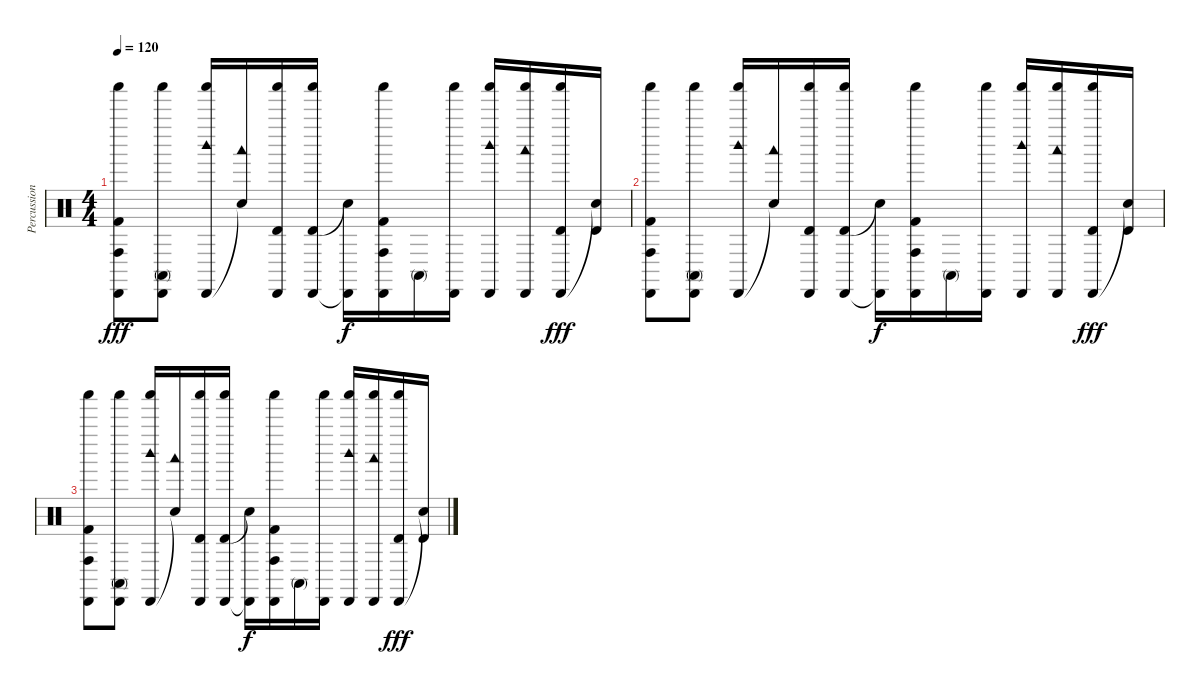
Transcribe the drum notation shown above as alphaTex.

\track ("Percussion" "Percussion") {instrument percussion}
\staff {score}
\articulation defaults
\ts (4 4)
\tempo 120
\clef neutral
\ks c
("Cabasa (hit)" "Conga high (hit)" "Kick (hit) 2" "Shaker (hit)").8{dy fff} ("Cabasa (hit)" "Conga high (mute)" "Shaker (hit)").8 ("Cabasa (hit)" "Woodblock high (hit)" "Shaker (hit)").16 ("Snare (hit)"{t} "Woodblock low (hit)").16 ("Cabasa (hit)" "Timbale high (hit)" "Shaker (hit)").16 ("Cabasa (hit)" "Timbale high (hit)" "Shaker (hit)").16 ("Cabasa (hit)"{t} "Snare (hit)"{t}).16{dy f} ("Cabasa (hit)" "Conga high (hit)" "Kick (hit) 2" "Shaker (hit)").16 "Conga high (mute)".16 ("Cabasa (hit)" "Shaker (hit)").16 ("Cabasa (hit)" "Woodblock high (hit)" "Shaker (hit)").16 ("Cabasa (hit)" "Woodblock low (hit)" "Shaker (hit)").16 ("Cabasa (hit)" "Timbale high (hit)" "Shaker (hit)").16{dy fff} ("Snare (hit)"{t} "Timbale high (hit)").16 |
("Cabasa (hit)" "Conga high (hit)" "Kick (hit) 2" "Shaker (hit)").8{volume 0} ("Cabasa (hit)" "Conga high (mute)" "Shaker (hit)").8 ("Cabasa (hit)" "Woodblock high (hit)" "Shaker (hit)").16 ("Snare (hit)"{t} "Woodblock low (hit)").16 ("Cabasa (hit)" "Timbale high (hit)" "Shaker (hit)").16 ("Cabasa (hit)" "Timbale high (hit)" "Shaker (hit)").16 ("Cabasa (hit)"{t} "Snare (hit)"{t}).16{dy f} ("Cabasa (hit)" "Conga high (hit)" "Kick (hit) 2" "Shaker (hit)").16 "Conga high (mute)".16 ("Cabasa (hit)" "Shaker (hit)").16 ("Cabasa (hit)" "Woodblock high (hit)" "Shaker (hit)").16 ("Cabasa (hit)" "Woodblock low (hit)" "Shaker (hit)").16 ("Cabasa (hit)" "Timbale high (hit)" "Shaker (hit)").16{dy fff} ("Snare (hit)"{t} "Timbale high (hit)").16 |
("Cabasa (hit)" "Conga high (hit)" "Kick (hit) 2" "Shaker (hit)").8 ("Cabasa (hit)" "Conga high (mute)" "Shaker (hit)").8 ("Cabasa (hit)" "Woodblock high (hit)" "Shaker (hit)").16 ("Snare (hit)"{t} "Woodblock low (hit)").16 ("Cabasa (hit)" "Timbale high (hit)" "Shaker (hit)").16 ("Cabasa (hit)" "Timbale high (hit)" "Shaker (hit)").16 ("Cabasa (hit)"{t} "Snare (hit)"{t}).16{dy f} ("Cabasa (hit)" "Conga high (hit)" "Kick (hit) 2" "Shaker (hit)").16 "Conga high (mute)".16 ("Cabasa (hit)" "Shaker (hit)").16 ("Cabasa (hit)" "Woodblock high (hit)" "Shaker (hit)").16 ("Cabasa (hit)" "Woodblock low (hit)" "Shaker (hit)").16 ("Cabasa (hit)" "Timbale high (hit)" "Shaker (hit)").16{dy fff} ("Snare (hit)"{t} "Timbale high (hit)").16
